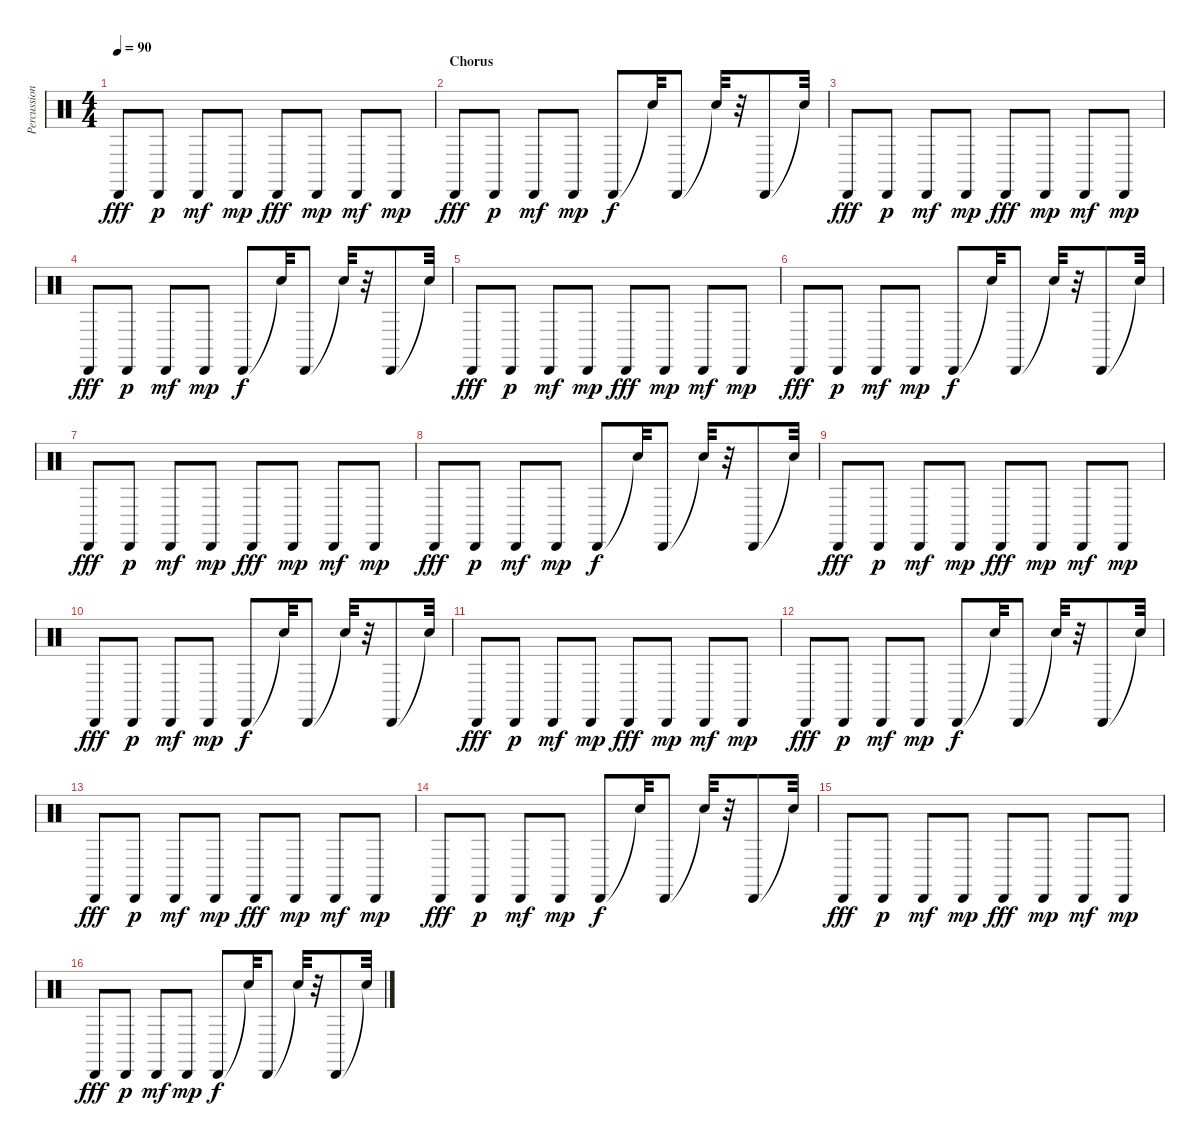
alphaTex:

\track ("Percussion" "Percussion") {instrument percussion}
\staff {score}
\articulation defaults
\ts (4 4)
\tempo 90
\clef neutral
\ks c "Cabasa (hit)".8{dy fff} "Cabasa (hit)".8{dy p} "Cabasa (hit)".8{dy mf} "Cabasa (hit)".8{dy mp} "Cabasa (hit)".8{dy fff} "Cabasa (hit)".8{dy mp} "Cabasa (hit)".8{dy mf} "Cabasa (hit)".8{dy mp}
|
\section ("" "Chorus")
"Cabasa (hit)".8{dy fff} "Cabasa (hit)".8{dy p} "Cabasa (hit)".8{dy mf} "Cabasa (hit)".8{dy mp} "Cabasa (hit)".8{dy f} "Snare (hit)"{t}.32 "Cabasa (hit)".8 "Snare (hit)"{t}.32 r.32 "Cabasa (hit)".8 "Snare (hit)"{t}.32 |
"Cabasa (hit)".8{dy fff} "Cabasa (hit)".8{dy p} "Cabasa (hit)".8{dy mf} "Cabasa (hit)".8{dy mp} "Cabasa (hit)".8{dy fff} "Cabasa (hit)".8{dy mp} "Cabasa (hit)".8{dy mf} "Cabasa (hit)".8{dy mp} |
"Cabasa (hit)".8{dy fff} "Cabasa (hit)".8{dy p} "Cabasa (hit)".8{dy mf} "Cabasa (hit)".8{dy mp} "Cabasa (hit)".8{dy f} "Snare (hit)"{t}.32 "Cabasa (hit)".8 "Snare (hit)"{t}.32 r.32 "Cabasa (hit)".8 "Snare (hit)"{t}.32 |
"Cabasa (hit)".8{dy fff} "Cabasa (hit)".8{dy p} "Cabasa (hit)".8{dy mf} "Cabasa (hit)".8{dy mp} "Cabasa (hit)".8{dy fff} "Cabasa (hit)".8{dy mp} "Cabasa (hit)".8{dy mf} "Cabasa (hit)".8{dy mp} |
"Cabasa (hit)".8{dy fff} "Cabasa (hit)".8{dy p} "Cabasa (hit)".8{dy mf} "Cabasa (hit)".8{dy mp} "Cabasa (hit)".8{dy f} "Snare (hit)"{t}.32 "Cabasa (hit)".8 "Snare (hit)"{t}.32 r.32 "Cabasa (hit)".8 "Snare (hit)"{t}.32 |
"Cabasa (hit)".8{dy fff} "Cabasa (hit)".8{dy p} "Cabasa (hit)".8{dy mf} "Cabasa (hit)".8{dy mp} "Cabasa (hit)".8{dy fff} "Cabasa (hit)".8{dy mp} "Cabasa (hit)".8{dy mf} "Cabasa (hit)".8{dy mp} |
"Cabasa (hit)".8{dy fff} "Cabasa (hit)".8{dy p} "Cabasa (hit)".8{dy mf} "Cabasa (hit)".8{dy mp} "Cabasa (hit)".8{dy f} "Snare (hit)"{t}.32 "Cabasa (hit)".8 "Snare (hit)"{t}.32 r.32 "Cabasa (hit)".8 "Snare (hit)"{t}.32 |
"Cabasa (hit)".8{dy fff} "Cabasa (hit)".8{dy p} "Cabasa (hit)".8{dy mf} "Cabasa (hit)".8{dy mp} "Cabasa (hit)".8{dy fff} "Cabasa (hit)".8{dy mp} "Cabasa (hit)".8{dy mf} "Cabasa (hit)".8{dy mp} |
"Cabasa (hit)".8{dy fff} "Cabasa (hit)".8{dy p} "Cabasa (hit)".8{dy mf} "Cabasa (hit)".8{dy mp} "Cabasa (hit)".8{dy f} "Snare (hit)"{t}.32 "Cabasa (hit)".8 "Snare (hit)"{t}.32 r.32 "Cabasa (hit)".8 "Snare (hit)"{t}.32 |
"Cabasa (hit)".8{dy fff} "Cabasa (hit)".8{dy p} "Cabasa (hit)".8{dy mf} "Cabasa (hit)".8{dy mp} "Cabasa (hit)".8{dy fff} "Cabasa (hit)".8{dy mp} "Cabasa (hit)".8{dy mf} "Cabasa (hit)".8{dy mp} |
"Cabasa (hit)".8{dy fff} "Cabasa (hit)".8{dy p} "Cabasa (hit)".8{dy mf} "Cabasa (hit)".8{dy mp} "Cabasa (hit)".8{dy f} "Snare (hit)"{t}.32 "Cabasa (hit)".8 "Snare (hit)"{t}.32 r.32 "Cabasa (hit)".8 "Snare (hit)"{t}.32 |
"Cabasa (hit)".8{dy fff} "Cabasa (hit)".8{dy p} "Cabasa (hit)".8{dy mf} "Cabasa (hit)".8{dy mp} "Cabasa (hit)".8{dy fff} "Cabasa (hit)".8{dy mp} "Cabasa (hit)".8{dy mf} "Cabasa (hit)".8{dy mp} |
"Cabasa (hit)".8{dy fff} "Cabasa (hit)".8{dy p} "Cabasa (hit)".8{dy mf} "Cabasa (hit)".8{dy mp} "Cabasa (hit)".8{dy f} "Snare (hit)"{t}.32 "Cabasa (hit)".8 "Snare (hit)"{t}.32 r.32 "Cabasa (hit)".8 "Snare (hit)"{t}.32 |
"Cabasa (hit)".8{dy fff} "Cabasa (hit)".8{dy p} "Cabasa (hit)".8{dy mf} "Cabasa (hit)".8{dy mp} "Cabasa (hit)".8{dy fff} "Cabasa (hit)".8{dy mp} "Cabasa (hit)".8{dy mf} "Cabasa (hit)".8{dy mp} |
"Cabasa (hit)".8{dy fff} "Cabasa (hit)".8{dy p} "Cabasa (hit)".8{dy mf} "Cabasa (hit)".8{dy mp} "Cabasa (hit)".8{dy f} "Snare (hit)"{t}.32 "Cabasa (hit)".8 "Snare (hit)"{t}.32 r.32 "Cabasa (hit)".8 "Snare (hit)"{t}.32
